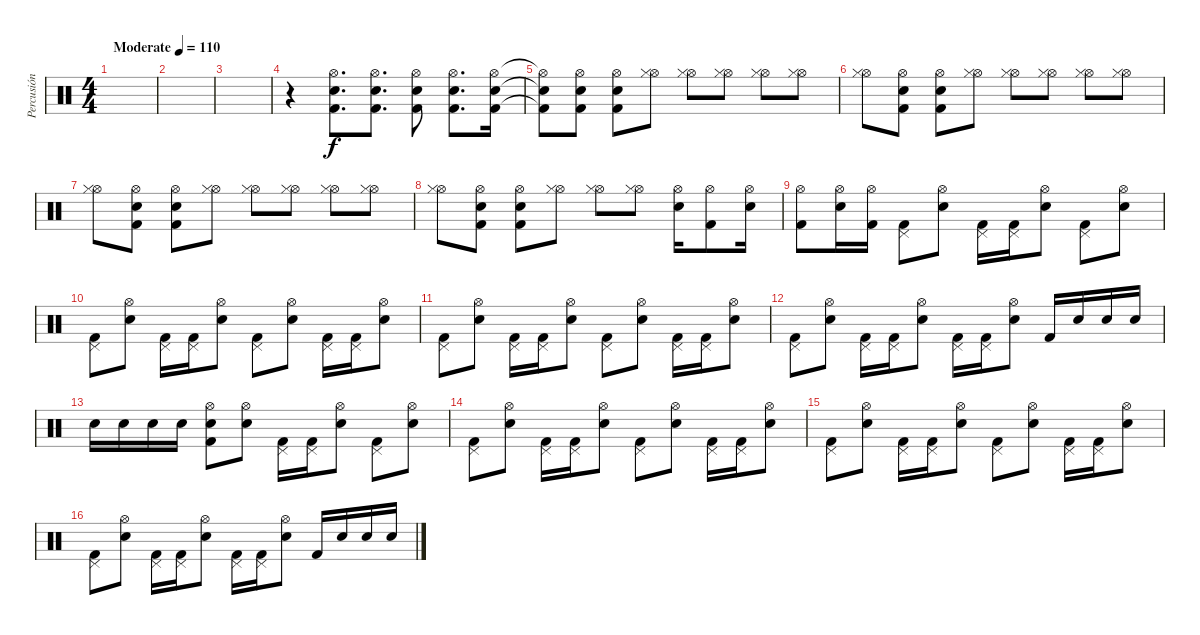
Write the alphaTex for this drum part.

\track ("Percusión" "Percusión") {mute instrument percussion}
\staff {score}
\articulation defaults
\ts (4 4)
\tempo (110 "Moderate")
\clef neutral
\ks c
|
|
|
r.4 ("Hi-Hat (open)" "Snare (hit) 2" "Kick (hit) 2").8{d} ("Hi-Hat (open)" "Snare (hit) 2" "Kick (hit) 2").8{d} ("Hi-Hat (open)" "Snare (hit) 2" "Kick (hit) 2").8 ("Hi-Hat (open)" "Snare (hit) 2" "Kick (hit) 2").8{d} ("Hi-Hat (open)" "Snare (hit) 2" "Kick (hit) 2").16 |
("Hi-Hat (open)"{t} "Snare (hit) 2"{t} "Kick (hit) 2"{t}).8 ("Hi-Hat (open)" "Snare (hit) 2" "Kick (hit) 2").8 ("Hi-Hat (open)" "Snare (hit) 2" "Kick (hit) 2").8 ("Hi-Hat (open)" "Hi-Hat (closed)").8 ("Hi-Hat (open)" "Hi-Hat (closed)").8 ("Hi-Hat (open)" "Hi-Hat (closed)").8 ("Hi-Hat (open)" "Hi-Hat (closed)").8 ("Hi-Hat (open)" "Hi-Hat (closed)").8 |
("Hi-Hat (open)" "Hi-Hat (closed)").8 ("Hi-Hat (open)" "Snare (hit) 2" "Kick (hit) 2").8 ("Hi-Hat (open)" "Snare (hit) 2" "Kick (hit) 2").8 ("Hi-Hat (open)" "Hi-Hat (closed)").8 ("Hi-Hat (open)" "Hi-Hat (closed)").8 ("Hi-Hat (open)" "Hi-Hat (closed)").8 ("Hi-Hat (open)" "Hi-Hat (closed)").8 ("Hi-Hat (open)" "Hi-Hat (closed)").8 |
("Hi-Hat (open)" "Hi-Hat (closed)").8 ("Hi-Hat (open)" "Snare (hit) 2" "Kick (hit) 2").8 ("Hi-Hat (open)" "Snare (hit) 2" "Kick (hit) 2").8 ("Hi-Hat (open)" "Hi-Hat (closed)").8 ("Hi-Hat (open)" "Hi-Hat (closed)").8 ("Hi-Hat (open)" "Hi-Hat (closed)").8 ("Hi-Hat (open)" "Hi-Hat (closed)").8 ("Hi-Hat (open)" "Hi-Hat (closed)").8 |
("Hi-Hat (open)" "Hi-Hat (closed)").8 ("Hi-Hat (open)" "Snare (hit) 2" "Kick (hit) 2").8 ("Hi-Hat (open)" "Snare (hit) 2" "Kick (hit) 2").8 ("Hi-Hat (open)" "Hi-Hat (closed)").8 ("Hi-Hat (open)" "Hi-Hat (closed)").8 ("Hi-Hat (open)" "Hi-Hat (closed)").8 ("Hi-Hat (open)" "Snare (hit) 2").16 ("Hi-Hat (open)" "Kick (hit) 2").8 ("Hi-Hat (open)" "Snare (hit) 2").16 |
("Hi-Hat (open)" "Kick (hit) 2").8 ("Hi-Hat (open)" "Snare (hit) 2").16 ("Hi-Hat (open)" "Kick (hit) 2").16 ("Pedal Hi-Hat (hit)" "Kick (hit) 2").8 ("Hi-Hat (open)" "Snare (hit) 2").8 ("Pedal Hi-Hat (hit)" "Kick (hit) 2").16 ("Pedal Hi-Hat (hit)" "Kick (hit) 2").16 ("Hi-Hat (open)" "Snare (hit) 2").8 ("Pedal Hi-Hat (hit)" "Kick (hit) 2").8 ("Hi-Hat (open)" "Snare (hit) 2").8 |
("Pedal Hi-Hat (hit)" "Kick (hit) 2").8 ("Hi-Hat (open)" "Snare (hit) 2").8 ("Pedal Hi-Hat (hit)" "Kick (hit) 2").16 ("Pedal Hi-Hat (hit)" "Kick (hit) 2").16 ("Hi-Hat (open)" "Snare (hit) 2").8 ("Pedal Hi-Hat (hit)" "Kick (hit) 2").8 ("Hi-Hat (open)" "Snare (hit) 2").8 ("Pedal Hi-Hat (hit)" "Kick (hit) 2").16 ("Pedal Hi-Hat (hit)" "Kick (hit) 2").16 ("Hi-Hat (open)" "Snare (hit) 2").8 |
("Pedal Hi-Hat (hit)" "Kick (hit) 2").8 ("Hi-Hat (open)" "Snare (hit) 2").8 ("Pedal Hi-Hat (hit)" "Kick (hit) 2").16 ("Pedal Hi-Hat (hit)" "Kick (hit) 2").16 ("Hi-Hat (open)" "Snare (hit) 2").8 ("Pedal Hi-Hat (hit)" "Kick (hit) 2").8 ("Hi-Hat (open)" "Snare (hit) 2").8 ("Pedal Hi-Hat (hit)" "Kick (hit) 2").16 ("Pedal Hi-Hat (hit)" "Kick (hit) 2").16 ("Hi-Hat (open)" "Snare (hit) 2").8 |
("Pedal Hi-Hat (hit)" "Kick (hit) 2").8 ("Hi-Hat (open)" "Snare (hit) 2").8 ("Pedal Hi-Hat (hit)" "Kick (hit) 2").16 ("Pedal Hi-Hat (hit)" "Kick (hit) 2").16 ("Hi-Hat (open)" "Snare (hit) 2").8 ("Pedal Hi-Hat (hit)" "Kick (hit) 2").16 ("Pedal Hi-Hat (hit)" "Kick (hit) 2").16 ("Hi-Hat (open)" "Snare (hit) 2").8 "Kick (hit) 2".16 "Snare (hit) 2".16 "Snare (hit) 2".16 "Snare (hit) 2".16 |
"Snare (hit) 2".16 "Snare (hit) 2".16 "Snare (hit) 2".16 "Snare (hit) 2".16 ("Hi-Hat (open)" "Snare (hit) 2" "Kick (hit) 2").8 ("Hi-Hat (open)" "Snare (hit) 2").8 ("Pedal Hi-Hat (hit)" "Kick (hit) 2").16 ("Pedal Hi-Hat (hit)" "Kick (hit) 2").16 ("Hi-Hat (open)" "Snare (hit) 2").8 ("Pedal Hi-Hat (hit)" "Kick (hit) 2").8 ("Hi-Hat (open)" "Snare (hit) 2").8 |
("Pedal Hi-Hat (hit)" "Kick (hit) 2").8 ("Hi-Hat (open)" "Snare (hit) 2").8 ("Pedal Hi-Hat (hit)" "Kick (hit) 2").16 ("Pedal Hi-Hat (hit)" "Kick (hit) 2").16 ("Hi-Hat (open)" "Snare (hit) 2").8 ("Pedal Hi-Hat (hit)" "Kick (hit) 2").8 ("Hi-Hat (open)" "Snare (hit) 2").8 ("Pedal Hi-Hat (hit)" "Kick (hit) 2").16 ("Pedal Hi-Hat (hit)" "Kick (hit) 2").16 ("Hi-Hat (open)" "Snare (hit) 2").8 |
("Pedal Hi-Hat (hit)" "Kick (hit) 2").8 ("Hi-Hat (open)" "Snare (hit) 2").8 ("Pedal Hi-Hat (hit)" "Kick (hit) 2").16 ("Pedal Hi-Hat (hit)" "Kick (hit) 2").16 ("Hi-Hat (open)" "Snare (hit) 2").8 ("Pedal Hi-Hat (hit)" "Kick (hit) 2").8 ("Hi-Hat (open)" "Snare (hit) 2").8 ("Pedal Hi-Hat (hit)" "Kick (hit) 2").16 ("Pedal Hi-Hat (hit)" "Kick (hit) 2").16 ("Hi-Hat (open)" "Snare (hit) 2").8 |
("Pedal Hi-Hat (hit)" "Kick (hit) 2").8 ("Hi-Hat (open)" "Snare (hit) 2").8 ("Pedal Hi-Hat (hit)" "Kick (hit) 2").16 ("Pedal Hi-Hat (hit)" "Kick (hit) 2").16 ("Hi-Hat (open)" "Snare (hit) 2").8 ("Pedal Hi-Hat (hit)" "Kick (hit) 2").16 ("Pedal Hi-Hat (hit)" "Kick (hit) 2").16 ("Hi-Hat (open)" "Snare (hit) 2").8 "Kick (hit) 2".16 "Snare (hit) 2".16 "Snare (hit) 2".16 "Snare (hit) 2".16
